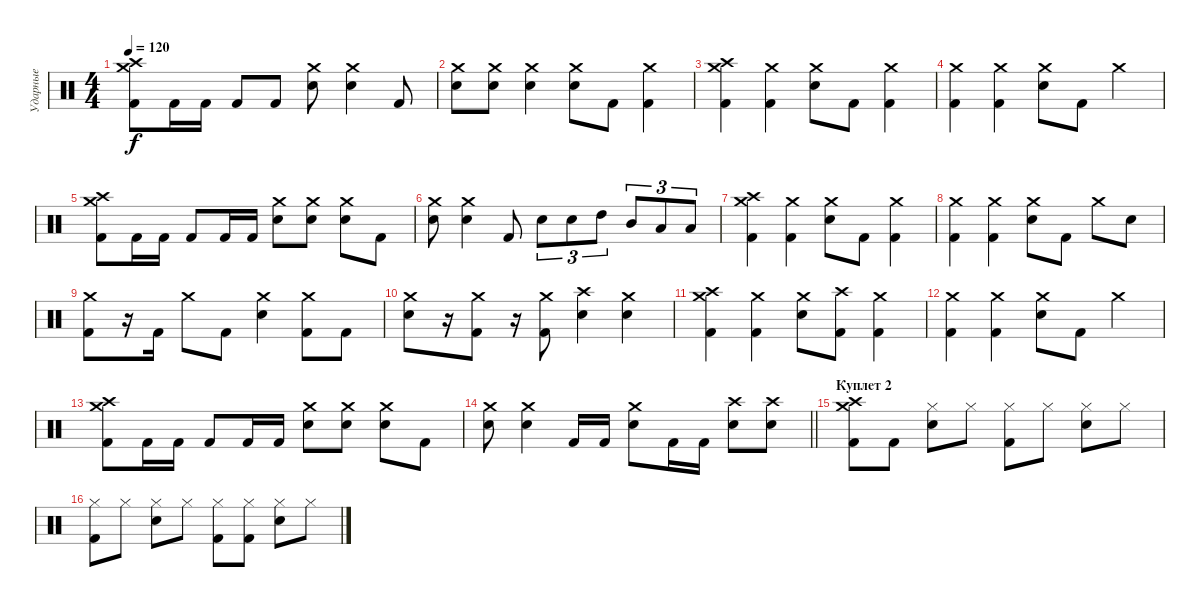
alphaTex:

\track ("Ударные" "Ударные") {instrument percussion}
\staff {score}
\articulation defaults
\ts (4 4)
\tempo 120
\clef neutral
\ks c
("Crash medium (hit)" "Crash high (hit)" "Kick (hit) 2").8{dy f} "Kick (hit) 2".16 "Kick (hit) 2".16 "Kick (hit) 2".8 "Kick (hit) 2".8 ("Crash medium (hit)" "Snare (hit) 2").8 ("Crash medium (hit)" "Snare (hit) 2").4 "Kick (hit) 2".8 |
("Crash medium (hit)" "Snare (hit) 2").8 ("Crash medium (hit)" "Snare (hit) 2").8 ("Crash medium (hit)" "Snare (hit) 2").4 ("Crash medium (hit)" "Snare (hit) 2").8 "Kick (hit) 2".8 ("Crash medium (hit)" "Kick (hit) 2").4 |
("Crash medium (hit)" "Crash high (hit)" "Kick (hit) 2").4 ("Crash medium (hit)" "Kick (hit) 2").4 ("Crash medium (hit)" "Snare (hit) 2").8 "Kick (hit) 2".8 ("Crash medium (hit)" "Kick (hit) 2").4 |
("Crash medium (hit)" "Kick (hit) 2").4 ("Crash medium (hit)" "Kick (hit) 2").4 ("Crash medium (hit)" "Snare (hit) 2").8 "Kick (hit) 2".8 "Crash medium (hit)".4 |
("Crash medium (hit)" "Crash high (hit)" "Kick (hit) 2").8 "Kick (hit) 2".16 "Kick (hit) 2".16 "Kick (hit) 2".8 "Kick (hit) 2".16 "Kick (hit) 2".16 ("Crash medium (hit)" "Snare (hit) 2").8 ("Crash medium (hit)" "Snare (hit) 2").8 ("Crash medium (hit)" "Snare (hit) 2").8 "Kick (hit) 2".8 |
("Crash medium (hit)" "Snare (hit) 2").8 ("Crash medium (hit)" "Snare (hit) 2").4 "Kick (hit) 2".8 "Snare (hit) 2".8{tu (3 2)} "Snare (hit) 2".8{tu (3 2)} "High Tom (hit)".8{tu (3 2)} "Mid Tom (hit)".8{tu (3 2)} "Low Tom (hit)".8{tu (3 2)} "Low Tom (hit)".8{tu (3 2)} |
("Crash medium (hit)" "Crash high (hit)" "Kick (hit) 2").4 ("Crash medium (hit)" "Kick (hit) 2").4 ("Crash medium (hit)" "Snare (hit) 2").8 "Kick (hit) 2".8 ("Crash medium (hit)" "Kick (hit) 2").4 |
("Crash medium (hit)" "Kick (hit) 2").4 ("Crash medium (hit)" "Kick (hit) 2").4 ("Crash medium (hit)" "Snare (hit) 2").8 "Kick (hit) 2".8 "Crash medium (hit)".8 "Snare (hit) 2".8 |
("Crash medium (hit)" "Kick (hit) 2").8 r.16 "Kick (hit) 2".16 "Crash medium (hit)".8 "Kick (hit) 2".8 ("Crash medium (hit)" "Snare (hit) 2").4 ("Crash medium (hit)" "Kick (hit) 2").8 "Kick (hit) 2".8 |
("Crash medium (hit)" "Snare (hit) 2").8 r.16 ("Crash medium (hit)" "Kick (hit) 2").8 r.16 ("Crash medium (hit)" "Kick (hit) 2").8 ("Crash high (hit)" "Snare (hit) 2").4 ("Crash medium (hit)" "Snare (hit) 2").4 |
("Crash medium (hit)" "Crash high (hit)" "Kick (hit) 2").4 ("Crash medium (hit)" "Kick (hit) 2").4 ("Crash medium (hit)" "Snare (hit) 2").8 ("Crash high (hit)" "Kick (hit) 2").8 ("Crash medium (hit)" "Kick (hit) 2").4 |
("Crash medium (hit)" "Kick (hit) 2").4 ("Crash medium (hit)" "Kick (hit) 2").4 ("Crash medium (hit)" "Snare (hit) 2").8 "Kick (hit) 2".8 "Crash medium (hit)".4 |
("Crash medium (hit)" "Crash high (hit)" "Kick (hit) 2").8 "Kick (hit) 2".16 "Kick (hit) 2".16 "Kick (hit) 2".8 "Kick (hit) 2".16 "Kick (hit) 2".16 ("Crash medium (hit)" "Snare (hit) 2").8 ("Crash medium (hit)" "Snare (hit) 2").8 ("Crash medium (hit)" "Snare (hit) 2").8 "Kick (hit) 2".8 |
\barLineRight lightlight
("Crash medium (hit)" "Snare (hit) 2").8 ("Crash medium (hit)" "Snare (hit) 2").4 "Kick (hit) 2".16 "Kick (hit) 2".16 ("Crash medium (hit)" "Snare (hit) 2").8 "Kick (hit) 2".16 "Kick (hit) 2".16 ("Crash high (hit)" "Snare (hit) 2").8 ("Crash high (hit)" "Snare (hit) 2").8 |
\section ("" "Куплет 2")
("Crash high (hit)" "Crash medium (hit)" "Kick (hit) 2").8 "Kick (hit) 2".8 ("Hi-Hat (closed)" "Snare (hit) 2").8 "Hi-Hat (closed)".8 ("Hi-Hat (closed)" "Kick (hit) 2").8 "Hi-Hat (closed)".8 ("Hi-Hat (closed)" "Snare (hit) 2").8 "Hi-Hat (closed)".8 |
("Hi-Hat (closed)" "Kick (hit) 2").8 "Hi-Hat (closed)".8 ("Hi-Hat (closed)" "Snare (hit) 2").8 "Hi-Hat (closed)".8 ("Hi-Hat (closed)" "Kick (hit) 2").8 ("Hi-Hat (closed)" "Kick (hit) 2").8 ("Hi-Hat (closed)" "Snare (hit) 2").8 "Hi-Hat (closed)".8
